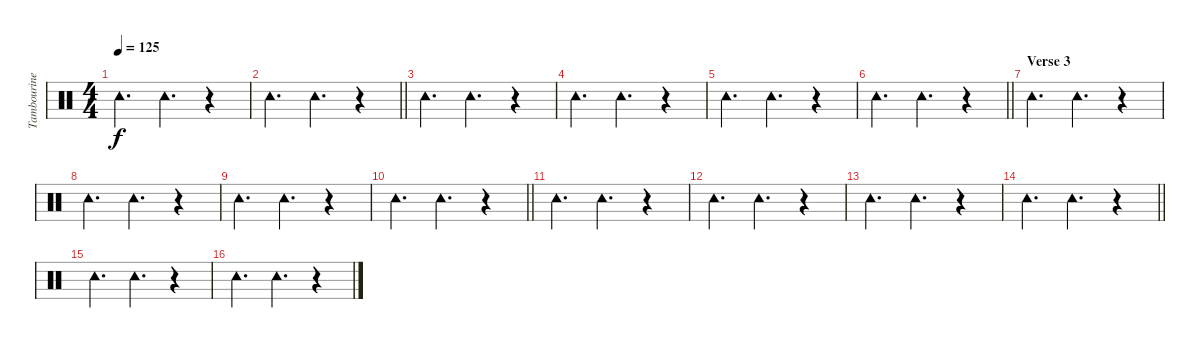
\track ("Tambourine" "Tambourine") {instrument percussion}
\staff {score}
\articulation defaults
\ts (4 4)
\tempo 125
\clef neutral
\ks c "Tambourine (hit)".4{d dy f} "Tambourine (hit)".4{d}
r.4 |
\barLineRight lightlight "Tambourine (hit)".4{d} "Tambourine (hit)".4{d}
r.4 |
"Tambourine (hit)".4{d} "Tambourine (hit)".4{d} r.4 |
"Tambourine (hit)".4{d} "Tambourine (hit)".4{d} r.4 |
"Tambourine (hit)".4{d} "Tambourine (hit)".4{d} r.4 |
\barLineRight lightlight "Tambourine (hit)".4{d} "Tambourine (hit)".4{d}
r.4 |
\section ("" "Verse 3")
"Tambourine (hit)".4{d} "Tambourine (hit)".4{d} r.4 |
"Tambourine (hit)".4{d} "Tambourine (hit)".4{d} r.4 |
"Tambourine (hit)".4{d} "Tambourine (hit)".4{d} r.4 |
\barLineRight lightlight "Tambourine (hit)".4{d} "Tambourine (hit)".4{d}
r.4 |
"Tambourine (hit)".4{d} "Tambourine (hit)".4{d} r.4 |
"Tambourine (hit)".4{d} "Tambourine (hit)".4{d} r.4 |
"Tambourine (hit)".4{d} "Tambourine (hit)".4{d} r.4 |
\barLineRight lightlight "Tambourine (hit)".4{d} "Tambourine (hit)".4{d}
r.4 |
"Tambourine (hit)".4{d} "Tambourine (hit)".4{d} r.4 |
"Tambourine (hit)".4{d} "Tambourine (hit)".4{d} r.4
